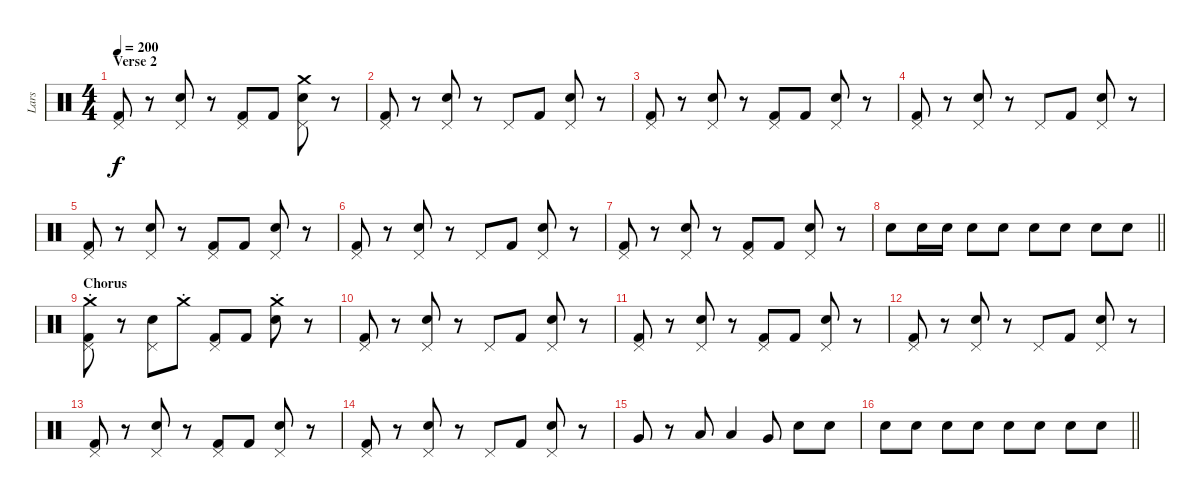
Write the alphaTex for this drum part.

\track ("Lars" "Lars") {instrument percussion}
\staff {score}
\articulation defaults
\ts (4 4)
\section ("" "Verse 2")
\tempo 200
\clef neutral
\ks c
("Pedal Hi-Hat (hit)" "Kick (hit) 2").8{dy f} r.8 ("Pedal Hi-Hat (hit)" "Snare (hit) 2").8 r.8 ("Pedal Hi-Hat (hit)" "Kick (hit) 2").8 "Kick (hit) 2".8 ("Crash medium (hit)" "Pedal Hi-Hat (hit)" "Snare (hit) 2").8 r.8 |
("Pedal Hi-Hat (hit)" "Kick (hit) 2").8 r.8 ("Pedal Hi-Hat (hit)" "Snare (hit) 2").8 r.8 "Pedal Hi-Hat (hit)".8 "Kick (hit) 2".8 ("Pedal Hi-Hat (hit)" "Snare (hit) 2").8 r.8 |
("Pedal Hi-Hat (hit)" "Kick (hit) 2").8 r.8 ("Pedal Hi-Hat (hit)" "Snare (hit) 2").8 r.8 ("Pedal Hi-Hat (hit)" "Kick (hit) 2").8 "Kick (hit) 2".8 ("Pedal Hi-Hat (hit)" "Snare (hit) 2").8 r.8 |
("Pedal Hi-Hat (hit)" "Kick (hit) 2").8 r.8 ("Pedal Hi-Hat (hit)" "Snare (hit) 2").8 r.8 "Pedal Hi-Hat (hit)".8 "Kick (hit) 2".8 ("Pedal Hi-Hat (hit)" "Snare (hit) 2").8 r.8 |
("Pedal Hi-Hat (hit)" "Kick (hit) 2").8 r.8 ("Pedal Hi-Hat (hit)" "Snare (hit) 2").8 r.8 ("Pedal Hi-Hat (hit)" "Kick (hit) 2").8 "Kick (hit) 2".8 ("Pedal Hi-Hat (hit)" "Snare (hit) 2").8 r.8 |
("Pedal Hi-Hat (hit)" "Kick (hit) 2").8 r.8 ("Pedal Hi-Hat (hit)" "Snare (hit) 2").8 r.8 "Pedal Hi-Hat (hit)".8 "Kick (hit) 2".8 ("Pedal Hi-Hat (hit)" "Snare (hit) 2").8 r.8 |
("Pedal Hi-Hat (hit)" "Kick (hit) 2").8 r.8 ("Pedal Hi-Hat (hit)" "Snare (hit) 2").8 r.8 ("Pedal Hi-Hat (hit)" "Kick (hit) 2").8 "Kick (hit) 2".8 ("Pedal Hi-Hat (hit)" "Snare (hit) 2").8 r.8 |
\barLineRight lightlight "Snare (hit) 2".8 "Snare (hit) 2".16 "Snare (hit) 2".16 "Snare (hit) 2".8 "Snare (hit) 2".8 "Snare (hit) 2".8 "Snare (hit) 2".8 "Snare (hit) 2".8 "Snare (hit) 2".8
|
\section ("" "Chorus")
("Crash medium (hit)"{st} "Pedal Hi-Hat (hit)" "Kick (hit) 2").8 r.8 ("Pedal Hi-Hat (hit)" "Snare (hit) 2").8 "Crash medium (hit)"{st}.8 ("Pedal Hi-Hat (hit)" "Kick (hit) 2").8 "Kick (hit) 2".8 ("Crash medium (hit)"{st} "Snare (hit) 2").8 r.8 |
("Pedal Hi-Hat (hit)" "Kick (hit) 2").8 r.8 ("Pedal Hi-Hat (hit)" "Snare (hit) 2").8 r.8 "Pedal Hi-Hat (hit)".8 "Kick (hit) 2".8 ("Pedal Hi-Hat (hit)" "Snare (hit) 2").8 r.8 |
("Pedal Hi-Hat (hit)" "Kick (hit) 2").8 r.8 ("Pedal Hi-Hat (hit)" "Snare (hit) 2").8 r.8 ("Pedal Hi-Hat (hit)" "Kick (hit) 2").8 "Kick (hit) 2".8 ("Pedal Hi-Hat (hit)" "Snare (hit) 2").8 r.8 |
("Pedal Hi-Hat (hit)" "Kick (hit) 2").8 r.8 ("Pedal Hi-Hat (hit)" "Snare (hit) 2").8 r.8 "Pedal Hi-Hat (hit)".8 "Kick (hit) 2".8 ("Pedal Hi-Hat (hit)" "Snare (hit) 2").8 r.8 |
("Pedal Hi-Hat (hit)" "Kick (hit) 2").8 r.8 ("Pedal Hi-Hat (hit)" "Snare (hit) 2").8 r.8 ("Pedal Hi-Hat (hit)" "Kick (hit) 2").8 "Kick (hit) 2".8 ("Pedal Hi-Hat (hit)" "Snare (hit) 2").8 r.8 |
("Pedal Hi-Hat (hit)" "Kick (hit) 2").8 r.8 ("Pedal Hi-Hat (hit)" "Snare (hit) 2").8 r.8 "Pedal Hi-Hat (hit)".8 "Kick (hit) 2".8 ("Pedal Hi-Hat (hit)" "Snare (hit) 2").8 r.8 |
"Very Low Tom (hit)".8 r.8 "Low Tom (hit)".8 "Low Tom (hit)".4 "Very Low Tom (hit)".8 "Snare (hit) 2".8 "Snare (hit) 2".8 |
\barLineRight lightlight "Snare (hit) 2".8 "Snare (hit) 2".8 "Snare (hit) 2".8 "Snare (hit) 2".8 "Snare (hit) 2".8 "Snare (hit) 2".8 "Snare (hit) 2".8 "Snare (hit) 2".8
